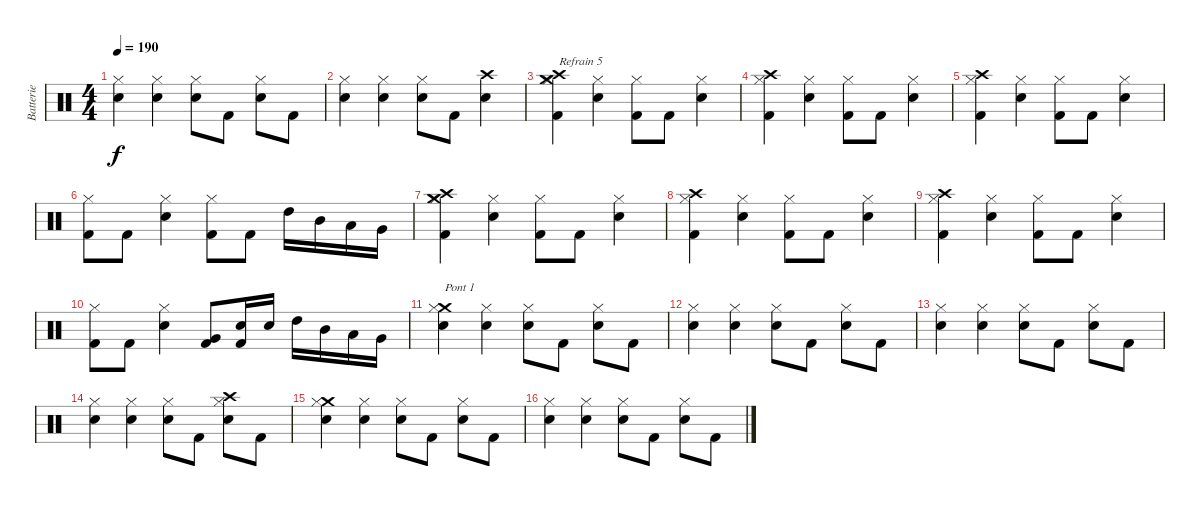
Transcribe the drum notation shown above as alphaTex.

\track ("Batterie" "Batterie") {instrument percussion}
\staff {score}
\articulation defaults
\ts (4 4)
\tempo 190
\clef neutral
\ks c
("Electric Snare (hit)" "Hi-Hat (closed)").4{dy f} ("Electric Snare (hit)" "Hi-Hat (closed)").4 ("Electric Snare (hit)" "Hi-Hat (closed)").8 "Kick (hit) 2".8 ("Electric Snare (hit)" "Hi-Hat (closed)").8 "Kick (hit) 2".8 |
("Electric Snare (hit)" "Hi-Hat (closed)").4 ("Electric Snare (hit)" "Hi-Hat (closed)").4 ("Electric Snare (hit)" "Hi-Hat (closed)").8 "Kick (hit) 2".8 ("Crash high (hit)" "Electric Snare (hit)").4 |
("Crash medium (hit)" "Crash high (hit)" "Hi-Hat (closed)" "Kick (hit) 2").4{txt "Refrain 5"} ("Electric Snare (hit)" "Hi-Hat (closed)").4 ("Hi-Hat (closed)" "Kick (hit) 2").8 "Kick (hit) 2".8 ("Electric Snare (hit)" "Hi-Hat (closed)").4 |
("Crash high (hit)" "Hi-Hat (closed)" "Kick (hit) 2").4 ("Electric Snare (hit)" "Hi-Hat (closed)").4 ("Hi-Hat (closed)" "Kick (hit) 2").8 "Kick (hit) 2".8 ("Electric Snare (hit)" "Hi-Hat (closed)").4 |
("Crash high (hit)" "Hi-Hat (closed)" "Kick (hit) 2").4 ("Electric Snare (hit)" "Hi-Hat (closed)").4 ("Hi-Hat (closed)" "Kick (hit) 2").8 "Kick (hit) 2".8 ("Electric Snare (hit)" "Hi-Hat (closed)").4 |
("Hi-Hat (closed)" "Kick (hit) 2").8 "Kick (hit) 2".8 ("Electric Snare (hit)" "Hi-Hat (closed)").4 ("Hi-Hat (closed)" "Kick (hit) 2").8 "Kick (hit) 2".8 "High Tom (hit)".16 "Mid Tom (hit)".16 "Low Tom (hit)".16 "Very Low Tom (hit)".16 |
("Crash medium (hit)" "Crash high (hit)" "Hi-Hat (closed)" "Kick (hit) 2").4 ("Electric Snare (hit)" "Hi-Hat (closed)").4 ("Hi-Hat (closed)" "Kick (hit) 2").8 "Kick (hit) 2".8 ("Electric Snare (hit)" "Hi-Hat (closed)").4 |
("Crash high (hit)" "Hi-Hat (closed)" "Kick (hit) 2").4 ("Electric Snare (hit)" "Hi-Hat (closed)").4 ("Hi-Hat (closed)" "Kick (hit) 2").8 "Kick (hit) 2".8 ("Electric Snare (hit)" "Hi-Hat (closed)").4 |
("Crash high (hit)" "Hi-Hat (closed)" "Kick (hit) 2").4 ("Electric Snare (hit)" "Hi-Hat (closed)").4 ("Hi-Hat (closed)" "Kick (hit) 2").8 "Kick (hit) 2".8 ("Electric Snare (hit)" "Hi-Hat (closed)").4 |
("Hi-Hat (closed)" "Kick (hit) 2").8 "Kick (hit) 2".8 ("Electric Snare (hit)" "Hi-Hat (closed)").4 ("Very Low Tom (hit)" "Kick (hit) 2").8 ("Electric Snare (hit)" "Kick (hit) 2").16 "Electric Snare (hit)".16 "High Tom (hit)".16 "Mid Tom (hit)".16 "Low Tom (hit)".16 "Very Low Tom (hit)".16 |
("Crash medium (hit)" "Electric Snare (hit)" "Hi-Hat (closed)").4{txt "Pont 1"} ("Electric Snare (hit)" "Hi-Hat (closed)").4 ("Electric Snare (hit)" "Hi-Hat (closed)").8 "Kick (hit) 2".8 ("Electric Snare (hit)" "Hi-Hat (closed)").8 "Kick (hit) 2".8 |
("Electric Snare (hit)" "Hi-Hat (closed)").4 ("Electric Snare (hit)" "Hi-Hat (closed)").4 ("Electric Snare (hit)" "Hi-Hat (closed)").8 "Kick (hit) 2".8 ("Electric Snare (hit)" "Hi-Hat (closed)").8 "Kick (hit) 2".8 |
("Electric Snare (hit)" "Hi-Hat (closed)").4 ("Electric Snare (hit)" "Hi-Hat (closed)").4 ("Electric Snare (hit)" "Hi-Hat (closed)").8 "Kick (hit) 2".8 ("Electric Snare (hit)" "Hi-Hat (closed)").8 "Kick (hit) 2".8 |
("Electric Snare (hit)" "Hi-Hat (closed)").4 ("Electric Snare (hit)" "Hi-Hat (closed)").4 ("Electric Snare (hit)" "Hi-Hat (closed)").8 "Kick (hit) 2".8 ("Crash high (hit)" "Electric Snare (hit)" "Hi-Hat (closed)").8 "Kick (hit) 2".8 |
("Crash medium (hit)" "Electric Snare (hit)" "Hi-Hat (closed)").4 ("Electric Snare (hit)" "Hi-Hat (closed)").4 ("Electric Snare (hit)" "Hi-Hat (closed)").8 "Kick (hit) 2".8 ("Electric Snare (hit)" "Hi-Hat (closed)").8 "Kick (hit) 2".8 |
("Electric Snare (hit)" "Hi-Hat (closed)").4 ("Electric Snare (hit)" "Hi-Hat (closed)").4 ("Electric Snare (hit)" "Hi-Hat (closed)").8 "Kick (hit) 2".8 ("Electric Snare (hit)" "Hi-Hat (closed)").8 "Kick (hit) 2".8
